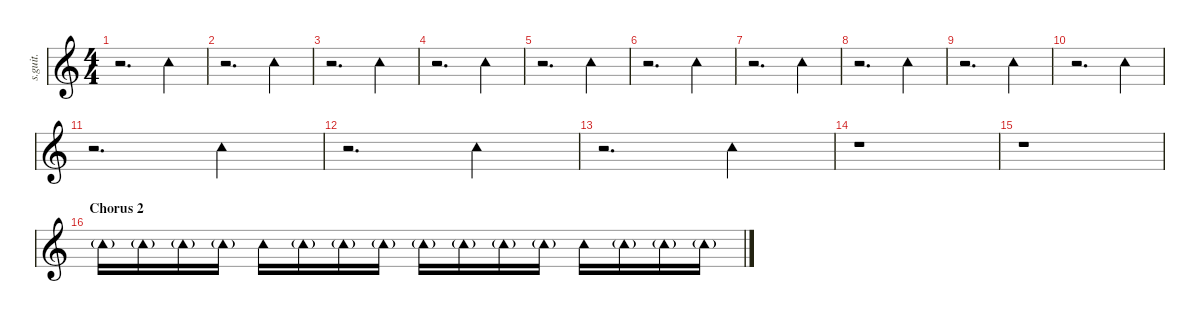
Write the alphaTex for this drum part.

\defaultSystemsLayout 4
\hideDynamics
\bracketExtendMode nobrackets
\track ("Tambourine" "s.guit.") {instrument percussion}
\staff {score}
\articulation defaults
\ts (4 4)
\tempo (136 hide)
\clef g2
\ks c
r.2{d dy f} "Tambourine (hit)".4 |
r.2{d} "Tambourine (hit)".4 |
r.2{d} "Tambourine (hit)".4 |
r.2{d} "Tambourine (hit)".4 |
r.2{d} "Tambourine (hit)".4 |
r.2{d} "Tambourine (hit)".4 |
r.2{d} "Tambourine (hit)".4 |
r.2{d} "Tambourine (hit)".4 |
r.2{d} "Tambourine (hit)".4 |
r.2{d} "Tambourine (hit)".4 |
r.2{d} "Tambourine (hit)".4 |
r.2{d} "Tambourine (hit)".4 |
r.2{d} "Tambourine (hit)".4 |
r.1 |
r.1 |
\section ("" "Chorus 2")
"Tambourine (hit)"{g}.16{dy pp} "Tambourine (hit)"{g}.16 "Tambourine (hit)"{g}.16 "Tambourine (hit)"{g}.16 "Tambourine (hit)".16{dy mp} "Tambourine (hit)"{g}.16{dy pp} "Tambourine (hit)"{g}.16 "Tambourine (hit)"{g}.16 "Tambourine (hit)"{g}.16 "Tambourine (hit)"{g}.16 "Tambourine (hit)"{g}.16 "Tambourine (hit)"{g}.16 "Tambourine (hit)".16{dy mp} "Tambourine (hit)"{g}.16{dy pp} "Tambourine (hit)"{g}.16 "Tambourine (hit)"{g}.16
